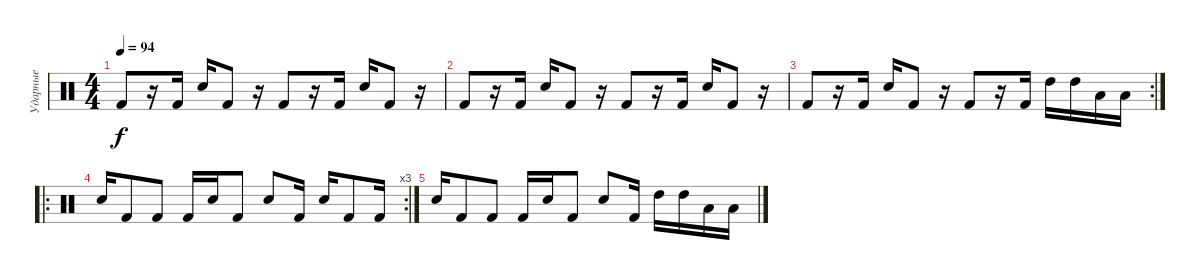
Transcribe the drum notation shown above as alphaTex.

\track ("Ударные" "Ударные") {instrument percussion}
\staff {score}
\articulation defaults
\ts (4 4)
\tempo 94
\clef neutral
\ks c "Kick (hit) 2".8{dy f}
r.16 "Kick (hit) 2".16 "Electric Snare (hit)".16 "Kick (hit) 2".8 r.16 "Kick (hit) 2".8 r.16 "Kick (hit) 2".16 "Electric Snare (hit)".16 "Kick (hit) 2".8 r.16 |
"Kick (hit) 2".8 r.16 "Kick (hit) 2".16 "Electric Snare (hit)".16 "Kick (hit) 2".8 r.16 "Kick (hit) 2".8 r.16 "Kick (hit) 2".16 "Electric Snare (hit)".16 "Kick (hit) 2".8 r.16 |
\rc 2 "Kick (hit) 2".8
r.16 "Kick (hit) 2".16 "Electric Snare (hit)".16 "Kick (hit) 2".8 r.16 "Kick (hit) 2".8 r.16 "Kick (hit) 2".16 "High Tom (hit)".16 "High Tom (hit)".16 "Low Tom (hit)".16 "Low Tom (hit)".16 |
\ro
\rc 3 "Electric Snare (hit)".16 "Kick (hit) 2".8 "Kick (hit) 2".8 "Kick (hit) 2".16 "Electric Snare (hit)".16 "Kick (hit) 2".8 "Electric Snare (hit)".8 "Kick (hit) 2".16 "Electric Snare (hit)".16 "Kick (hit) 2".8 "Kick (hit) 2".16
|
"Electric Snare (hit)".16 "Kick (hit) 2".8 "Kick (hit) 2".8 "Kick (hit) 2".16 "Electric Snare (hit)".16 "Kick (hit) 2".8 "Electric Snare (hit)".8 "Kick (hit) 2".16 "High Tom (hit)".16 "High Tom (hit)".16 "Low Tom (hit)".16 "Low Tom (hit)".16
